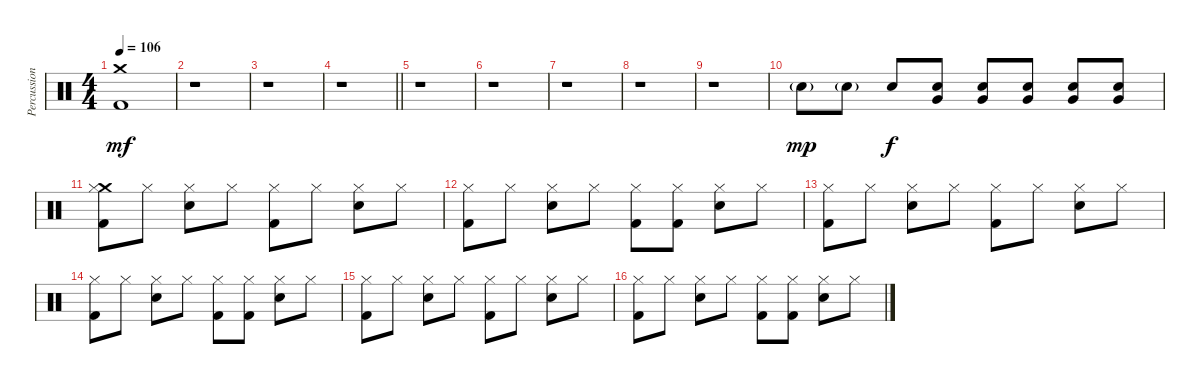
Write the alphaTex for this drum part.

\track ("Percussion" "Percussion") {instrument percussion}
\staff {score}
\articulation defaults
\ts (4 4)
\tempo 106
\clef neutral
\ks c
("Crash medium (hit)" "Kick (hit) 2").1{dy mf} |
r.1 |
r.1 |
\barLineRight lightlight
r.1 |
r.1 |
r.1 |
r.1 |
r.1 |
r.1 |
"Electric Snare (hit)"{g}.8{dy mp} "Electric Snare (hit)"{g}.8 "Electric Snare (hit)".8{dy f} ("Electric Snare (hit)" "Very Low Tom (hit)").8 ("Electric Snare (hit)" "Very Low Tom (hit)").8 ("Electric Snare (hit)" "Very Low Tom (hit)").8 ("Electric Snare (hit)" "Very Low Tom (hit)").8 ("Electric Snare (hit)" "Very Low Tom (hit)").8 |
("Crash medium (hit)" "Hi-Hat (closed)" "Kick (hit) 2").8 "Hi-Hat (closed)".8 ("Hi-Hat (closed)" "Electric Snare (hit)").8 "Hi-Hat (closed)".8 ("Hi-Hat (closed)" "Kick (hit) 2").8 "Hi-Hat (closed)".8 ("Hi-Hat (closed)" "Electric Snare (hit)").8 "Hi-Hat (closed)".8 |
("Hi-Hat (closed)" "Kick (hit) 2").8 "Hi-Hat (closed)".8 ("Hi-Hat (closed)" "Electric Snare (hit)").8 "Hi-Hat (closed)".8 ("Hi-Hat (closed)" "Kick (hit) 2").8 ("Hi-Hat (closed)" "Kick (hit) 2").8 ("Hi-Hat (closed)" "Electric Snare (hit)").8 "Hi-Hat (closed)".8 |
("Hi-Hat (closed)" "Kick (hit) 2").8 "Hi-Hat (closed)".8 ("Hi-Hat (closed)" "Electric Snare (hit)").8 "Hi-Hat (closed)".8 ("Hi-Hat (closed)" "Kick (hit) 2").8 "Hi-Hat (closed)".8 ("Hi-Hat (closed)" "Electric Snare (hit)").8 "Hi-Hat (closed)".8 |
("Hi-Hat (closed)" "Kick (hit) 2").8 "Hi-Hat (closed)".8 ("Hi-Hat (closed)" "Electric Snare (hit)").8 "Hi-Hat (closed)".8 ("Hi-Hat (closed)" "Kick (hit) 2").8 ("Hi-Hat (closed)" "Kick (hit) 2").8 ("Hi-Hat (closed)" "Electric Snare (hit)").8 "Hi-Hat (closed)".8 |
("Hi-Hat (closed)" "Kick (hit) 2").8 "Hi-Hat (closed)".8 ("Hi-Hat (closed)" "Electric Snare (hit)").8 "Hi-Hat (closed)".8 ("Hi-Hat (closed)" "Kick (hit) 2").8 "Hi-Hat (closed)".8 ("Hi-Hat (closed)" "Electric Snare (hit)").8 "Hi-Hat (closed)".8 |
("Hi-Hat (closed)" "Kick (hit) 2").8 "Hi-Hat (closed)".8 ("Hi-Hat (closed)" "Electric Snare (hit)").8 "Hi-Hat (closed)".8 ("Hi-Hat (closed)" "Kick (hit) 2").8 ("Hi-Hat (closed)" "Kick (hit) 2").8 ("Hi-Hat (closed)" "Electric Snare (hit)").8 "Hi-Hat (closed)".8
